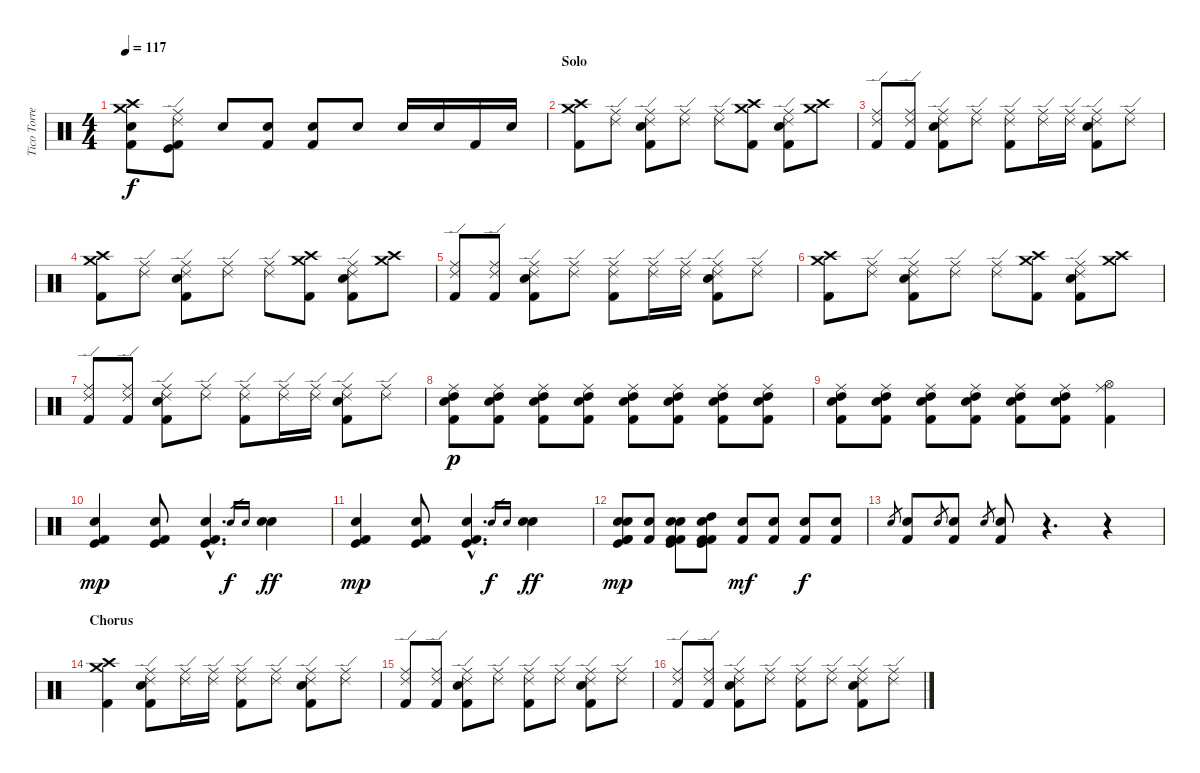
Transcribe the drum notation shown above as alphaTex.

\track ("Tico Torres" "Tico Torre") {instrument percussion}
\staff {score}
\articulation defaults
\ts (4 4)
\tempo 117
\clef neutral
\ks c
("Crash high (hit)" "Crash medium (hit)" "Electric Snare (hit)" "Kick (hit) 2").8{dy f} ("Ride (middle)" "Ride (edge) 2" "Kick (hit)" "Kick (hit) 2").8 "Electric Snare (hit)".8 ("Electric Snare (hit)" "Kick (hit) 2").8 ("Electric Snare (hit)" "Kick (hit) 2").8 "Electric Snare (hit)".8 "Electric Snare (hit)".16 "Electric Snare (hit)".16 "Kick (hit) 2".16 "Electric Snare (hit)".16 |
\section ("" "Solo")
("Crash high (hit)" "Crash medium (hit)" "Kick (hit) 2").8 ("Ride (middle)" "Ride (edge) 2").8 ("Ride (middle)" "Ride (edge) 2" "Electric Snare (hit)" "Kick (hit) 2").8 ("Ride (middle)" "Ride (edge) 2").8 ("Ride (middle)" "Ride (edge) 2").8 ("Crash high (hit)" "Crash medium (hit)" "Kick (hit) 2").8 ("Ride (middle)" "Ride (edge) 2" "Electric Snare (hit)" "Kick (hit) 2").8 ("Crash high (hit)" "Crash medium (hit)").8 |
("Ride (middle)" "Ride (edge) 2" "Kick (hit) 2").8 ("Ride (middle)" "Ride (edge) 2" "Kick (hit) 2").8 ("Ride (middle)" "Ride (edge) 2" "Electric Snare (hit)" "Kick (hit) 2").8 ("Ride (middle)" "Ride (edge) 2").8 ("Ride (middle)" "Ride (edge) 2" "Kick (hit) 2").8 ("Ride (middle)" "Ride (edge) 2").16 ("Ride (middle)" "Ride (edge) 2").16 ("Ride (middle)" "Ride (edge) 2" "Electric Snare (hit)" "Kick (hit) 2").8 ("Ride (middle)" "Ride (edge) 2").8 |
("Crash high (hit)" "Crash medium (hit)" "Kick (hit) 2").8 ("Ride (middle)" "Ride (edge) 2").8 ("Ride (middle)" "Ride (edge) 2" "Electric Snare (hit)" "Kick (hit) 2").8 ("Ride (middle)" "Ride (edge) 2").8 ("Ride (middle)" "Ride (edge) 2").8 ("Crash high (hit)" "Crash medium (hit)" "Kick (hit) 2").8 ("Ride (middle)" "Ride (edge) 2" "Electric Snare (hit)" "Kick (hit) 2").8 ("Crash high (hit)" "Crash medium (hit)").8 |
("Ride (middle)" "Ride (edge) 2" "Kick (hit) 2").8 ("Ride (middle)" "Ride (edge) 2" "Kick (hit) 2").8 ("Ride (middle)" "Ride (edge) 2" "Electric Snare (hit)" "Kick (hit) 2").8 ("Ride (middle)" "Ride (edge) 2").8 ("Ride (middle)" "Ride (edge) 2" "Kick (hit) 2").8 ("Ride (middle)" "Ride (edge) 2").16 ("Ride (middle)" "Ride (edge) 2").16 ("Ride (middle)" "Ride (edge) 2" "Electric Snare (hit)" "Kick (hit) 2").8 ("Ride (middle)" "Ride (edge) 2").8 |
("Crash high (hit)" "Crash medium (hit)" "Kick (hit) 2").8 ("Ride (middle)" "Ride (edge) 2").8 ("Ride (middle)" "Ride (edge) 2" "Electric Snare (hit)" "Kick (hit) 2").8 ("Ride (middle)" "Ride (edge) 2").8 ("Ride (middle)" "Ride (edge) 2").8 ("Crash high (hit)" "Crash medium (hit)" "Kick (hit) 2").8 ("Ride (middle)" "Ride (edge) 2" "Electric Snare (hit)" "Kick (hit) 2").8 ("Crash high (hit)" "Crash medium (hit)").8 |
("Ride (middle)" "Ride (edge) 2" "Kick (hit) 2").8 ("Ride (middle)" "Ride (edge) 2" "Kick (hit) 2").8 ("Ride (middle)" "Ride (edge) 2" "Electric Snare (hit)" "Kick (hit) 2").8 ("Ride (middle)" "Ride (edge) 2").8 ("Ride (middle)" "Ride (edge) 2" "Kick (hit) 2").8 ("Ride (middle)" "Ride (edge) 2").16 ("Ride (middle)" "Ride (edge) 2").16 ("Ride (middle)" "Ride (edge) 2" "Electric Snare (hit)" "Kick (hit) 2").8 ("Ride (middle)" "Ride (edge) 2").8 |
("Electric Snare (hit)" "Kick (hit) 2" "High Tom (hit)" "Ride (middle)").8{dy p} ("Electric Snare (hit)" "Kick (hit) 2" "High Tom (hit)" "Ride (middle)").8 ("Electric Snare (hit)" "Kick (hit) 2" "High Tom (hit)" "Ride (middle)").8 ("Electric Snare (hit)" "Kick (hit) 2" "High Tom (hit)" "Ride (middle)").8 ("Electric Snare (hit)" "Kick (hit) 2" "High Tom (hit)" "Ride (middle)").8 ("Electric Snare (hit)" "Kick (hit) 2" "High Tom (hit)" "Ride (middle)").8 ("Electric Snare (hit)" "Kick (hit) 2" "High Tom (hit)" "Ride (middle)").8 ("Electric Snare (hit)" "Kick (hit) 2" "High Tom (hit)" "Ride (middle)").8 |
("Electric Snare (hit)" "Kick (hit) 2" "High Tom (hit)" "Ride (middle)").8 ("Electric Snare (hit)" "Kick (hit) 2" "High Tom (hit)" "Ride (middle)").8 ("Electric Snare (hit)" "Kick (hit) 2" "High Tom (hit)" "Ride (middle)").8 ("Electric Snare (hit)" "Kick (hit) 2" "High Tom (hit)" "Ride (middle)").8 ("Electric Snare (hit)" "Kick (hit) 2" "High Tom (hit)" "Ride (middle)").8 ("Electric Snare (hit)" "Kick (hit) 2" "High Tom (hit)" "Ride (middle)").8 ("Hi-Hat (open)" "Kick (hit) 2" "Ride (middle)").4 |
("Kick (hit)" "Kick (hit) 2" "Snare (hit) 2").4{dy mp} ("Kick (hit)" "Kick (hit) 2" "Snare (hit) 2").8 ("Kick (hit)"{hac} "Kick (hit) 2"{hac} "Snare (hit) 2"{hac}).4{d} "Electric Snare (hit)".16{gr dy f} "Electric Snare (hit)".16{gr} ("Electric Snare (hit)" "Electric Snare (hit)").4{dy ff} |
("Kick (hit)" "Kick (hit) 2" "Snare (hit) 2").4{dy mp} ("Kick (hit)" "Kick (hit) 2" "Snare (hit) 2").8 ("Kick (hit)"{hac} "Kick (hit) 2"{hac} "Snare (hit) 2"{hac}).4{d} "Electric Snare (hit)".16{gr dy f} "Electric Snare (hit)".16{gr} ("Electric Snare (hit)" "Electric Snare (hit)").4{dy ff} |
("Kick (hit)" "Kick (hit) 2" "Snare (hit) 2" "Electric Snare (hit)" "Kick (hit) 2").8{dy mp} ("Electric Snare (hit)" "Kick (hit) 2").8 ("Kick (hit)" "Kick (hit) 2" "Snare (hit) 2" "Electric Snare (hit)" "Kick (hit) 2").8 ("Kick (hit)" "Kick (hit) 2" "High Tom (hit)" "Electric Snare (hit)" "Kick (hit) 2").8 ("Electric Snare (hit)" "Kick (hit) 2").8{dy mf} ("Electric Snare (hit)" "Kick (hit) 2").8 ("Electric Snare (hit)" "Kick (hit) 2").8{dy f} ("Electric Snare (hit)" "Kick (hit) 2").8 |
"Electric Snare (hit)".8{gr} ("Electric Snare (hit)" "Kick (hit) 2").8 "Electric Snare (hit)".8{gr} ("Electric Snare (hit)" "Kick (hit) 2").8 "Electric Snare (hit)".8{gr} ("Electric Snare (hit)" "Kick (hit) 2").8 r.4{d} r.4 |
\section ("" "Chorus ")
("Crash high (hit)" "Crash medium (hit)" "Kick (hit) 2").4 ("Ride (middle)" "Ride (edge) 2" "Electric Snare (hit)" "Kick (hit) 2").8 ("Ride (middle)" "Ride (edge) 2").16 ("Ride (middle)" "Ride (edge) 2").16 ("Ride (middle)" "Ride (edge) 2" "Kick (hit) 2").8 ("Ride (middle)" "Ride (edge) 2").8 ("Ride (middle)" "Ride (edge) 2" "Electric Snare (hit)" "Kick (hit) 2").8 ("Ride (middle)" "Ride (edge) 2").8 |
("Ride (middle)" "Ride (edge) 2" "Kick (hit) 2").8 ("Ride (middle)" "Ride (edge) 2" "Kick (hit) 2").8 ("Ride (middle)" "Ride (edge) 2" "Electric Snare (hit)" "Kick (hit) 2").8 ("Ride (middle)" "Ride (edge) 2").8 ("Ride (middle)" "Ride (edge) 2" "Kick (hit) 2").8 ("Ride (middle)" "Ride (edge) 2").8 ("Ride (middle)" "Ride (edge) 2" "Electric Snare (hit)" "Kick (hit) 2").8 ("Ride (middle)" "Ride (edge) 2").8 |
("Ride (middle)" "Ride (edge) 2" "Kick (hit) 2").8 ("Ride (middle)" "Ride (edge) 2" "Kick (hit) 2").8 ("Ride (middle)" "Ride (edge) 2" "Electric Snare (hit)" "Kick (hit) 2").8 ("Ride (middle)" "Ride (edge) 2").8 ("Ride (middle)" "Ride (edge) 2" "Kick (hit) 2").8 ("Ride (middle)" "Ride (edge) 2").8 ("Ride (middle)" "Ride (edge) 2" "Electric Snare (hit)" "Kick (hit) 2").8 ("Ride (middle)" "Ride (edge) 2").8
